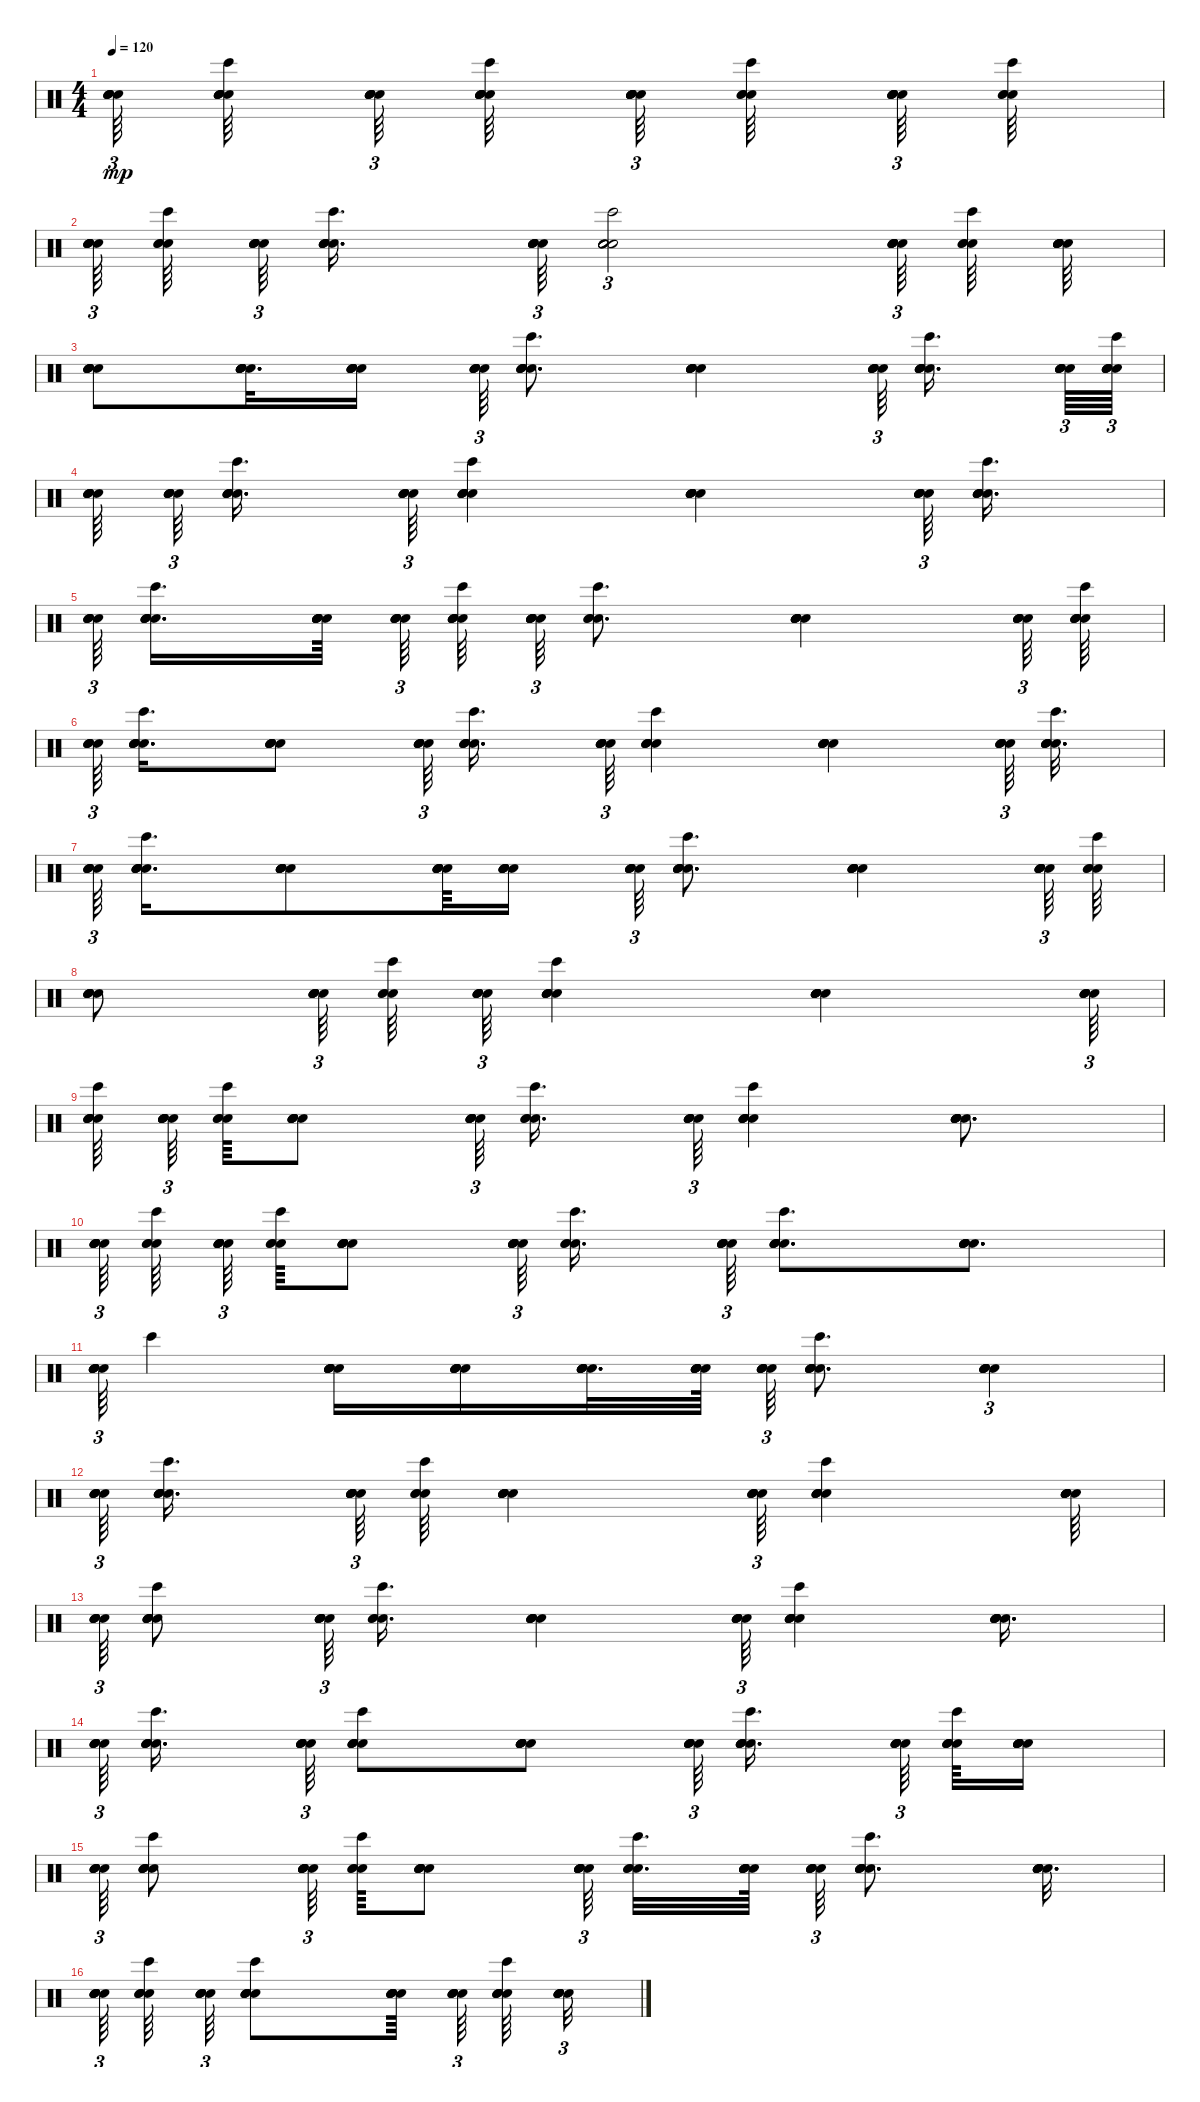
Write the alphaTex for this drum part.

\track "" {instrument percussion}
\staff {score}
\articulation defaults
\ts (4 4)
\tempo 120
\clef neutral
\ks c
("Snare (hit)" "Snare (hit)" "Snare (hit)" "Snare (hit)" "Snare (hit)").64{tu (3 2) dy mp} ("Snare (hit)" "Snare (hit)" "Snare (hit)" "Snare (hit)" "Bongo High (hit)" "Snare (hit)").64 ("Snare (hit)" "Snare (hit)" "Snare (hit)" "Snare (hit)" "Snare (hit)").64{tu (3 2)} ("Snare (hit)" "Snare (hit)" "Snare (hit)" "Snare (hit)" "Bongo High (hit)" "Snare (hit)").64 ("Snare (hit)" "Snare (hit)" "Snare (hit)" "Snare (hit)" "Snare (hit)" "Snare (hit)").64{tu (3 2)} ("Snare (hit)" "Snare (hit)" "Bongo High (hit)" "Snare (hit)").64 ("Snare (hit)" "Snare (hit)" "Snare (hit)" "Snare (hit)" "Snare (hit)" "Snare (hit)").64{tu (3 2)} ("Snare (hit)" "Snare (hit)" "Bongo High (hit)" "Snare (hit)").64 |
("Snare (hit)" "Snare (hit)" "Snare (hit)" "Snare (hit)" "Snare (hit)" "Snare (hit)").64{tu (3 2)} ("Snare (hit)" "Snare (hit)" "Bongo High (hit)" "Snare (hit)").64 ("Snare (hit)" "Snare (hit)" "Snare (hit)" "Snare (hit)" "Snare (hit)").64{tu (3 2)} ("Snare (hit)" "Snare (hit)" "Snare (hit)" "Snare (hit)" "Bongo High (hit)" "Snare (hit)").16{d} ("Snare (hit)" "Snare (hit)" "Snare (hit)" "Snare (hit)" "Snare (hit)").64{tu (3 2)} ("Snare (hit)" "Snare (hit)" "Snare (hit)" "Snare (hit)" "Snare (hit)" "Bongo High (hit)").2{tu (3 2)} ("Snare (hit)" "Snare (hit)" "Snare (hit)" "Snare (hit)" "Snare (hit)" "Snare (hit)").64{tu (3 2)} ("Snare (hit)" "Snare (hit)" "Bongo High (hit)" "Snare (hit)").64 ("Snare (hit)" "Snare (hit)" "Snare (hit)" "Snare (hit)" "Snare (hit)" "Snare (hit)").64 |
("Snare (hit)" "Snare (hit)" "Snare (hit)" "Snare (hit)" "Snare (hit)" "Snare (hit)").8 ("Snare (hit)" "Snare (hit)" "Snare (hit)" "Snare (hit)" "Snare (hit)" "Snare (hit)").32{d} ("Snare (hit)" "Snare (hit)" "Snare (hit)" "Snare (hit)" "Snare (hit)" "Snare (hit)").16 ("Snare (hit)" "Snare (hit)" "Snare (hit)" "Snare (hit)" "Snare (hit)").64{tu (3 2)} ("Snare (hit)" "Snare (hit)" "Snare (hit)" "Snare (hit)" "Snare (hit)" "Bongo High (hit)").8{d} ("Snare (hit)" "Snare (hit)" "Snare (hit)" "Snare (hit)" "Snare (hit)" "Snare (hit)").4 ("Snare (hit)" "Snare (hit)" "Snare (hit)" "Snare (hit)" "Snare (hit)").64{tu (3 2)} ("Snare (hit)" "Snare (hit)" "Snare (hit)" "Snare (hit)" "Bongo High (hit)" "Snare (hit)").16{d} ("Snare (hit)" "Snare (hit)" "Snare (hit)" "Snare (hit)" "Snare (hit)").64{tu (3 2)} ("Snare (hit)" "Snare (hit)" "Snare (hit)" "Snare (hit)" "Bongo High (hit)" "Snare (hit)").64{tu (3 2)} |
("Snare (hit)" "Snare (hit)" "Snare (hit)" "Snare (hit)" "Snare (hit)" "Snare (hit)").64 ("Snare (hit)" "Snare (hit)" "Snare (hit)" "Snare (hit)" "Snare (hit)").64{tu (3 2)} ("Snare (hit)" "Snare (hit)" "Snare (hit)" "Snare (hit)" "Snare (hit)" "Bongo High (hit)").16{d} ("Snare (hit)" "Snare (hit)" "Snare (hit)" "Snare (hit)" "Snare (hit)").64{tu (3 2)} ("Snare (hit)" "Snare (hit)" "Snare (hit)" "Snare (hit)" "Bongo High (hit)" "Snare (hit)").4 ("Snare (hit)" "Snare (hit)" "Snare (hit)" "Snare (hit)" "Snare (hit)" "Snare (hit)").4 ("Snare (hit)" "Snare (hit)" "Snare (hit)" "Snare (hit)" "Snare (hit)").64{tu (3 2)} ("Snare (hit)" "Snare (hit)" "Snare (hit)" "Snare (hit)" "Bongo High (hit)" "Snare (hit)").16{d} |
("Snare (hit)" "Snare (hit)" "Snare (hit)" "Snare (hit)" "Snare (hit)").64{tu (3 2)} ("Snare (hit)" "Snare (hit)" "Snare (hit)" "Snare (hit)" "Bongo High (hit)" "Snare (hit)").16{d} ("Snare (hit)" "Snare (hit)" "Snare (hit)" "Snare (hit)" "Snare (hit)" "Snare (hit)").64 ("Snare (hit)" "Snare (hit)" "Snare (hit)" "Snare (hit)" "Snare (hit)").64{tu (3 2)} ("Snare (hit)" "Snare (hit)" "Snare (hit)" "Snare (hit)" "Bongo High (hit)" "Snare (hit)").64 ("Snare (hit)" "Snare (hit)" "Snare (hit)" "Snare (hit)" "Snare (hit)" "Snare (hit)").64{tu (3 2)} ("Snare (hit)" "Snare (hit)" "Bongo High (hit)" "Snare (hit)").8{d} ("Snare (hit)" "Snare (hit)" "Snare (hit)" "Snare (hit)" "Snare (hit)" "Snare (hit)").4 ("Snare (hit)" "Snare (hit)" "Snare (hit)" "Snare (hit)" "Snare (hit)").64{tu (3 2)} ("Snare (hit)" "Snare (hit)" "Snare (hit)" "Snare (hit)" "Bongo High (hit)" "Snare (hit)").64 |
("Snare (hit)" "Snare (hit)" "Snare (hit)" "Snare (hit)" "Snare (hit)").64{tu (3 2)} ("Snare (hit)" "Snare (hit)" "Snare (hit)" "Snare (hit)" "Snare (hit)" "Bongo High (hit)").16{d} ("Snare (hit)" "Snare (hit)" "Snare (hit)" "Snare (hit)" "Snare (hit)" "Snare (hit)").8 ("Snare (hit)" "Snare (hit)" "Snare (hit)" "Snare (hit)" "Snare (hit)").64{tu (3 2)} ("Snare (hit)" "Snare (hit)" "Snare (hit)" "Bongo High (hit)" "Snare (hit)" "Snare (hit)").16{d} ("Snare (hit)" "Snare (hit)" "Snare (hit)" "Snare (hit)" "Snare (hit)").64{tu (3 2)} ("Snare (hit)" "Snare (hit)" "Snare (hit)" "Bongo High (hit)" "Snare (hit)" "Snare (hit)").4 ("Snare (hit)" "Snare (hit)" "Snare (hit)" "Snare (hit)" "Snare (hit)" "Snare (hit)").4 ("Snare (hit)" "Snare (hit)" "Snare (hit)" "Snare (hit)" "Snare (hit)").64{tu (3 2)} ("Snare (hit)" "Snare (hit)" "Snare (hit)" "Snare (hit)" "Bongo High (hit)" "Snare (hit)").32{d} |
("Snare (hit)" "Snare (hit)" "Snare (hit)" "Snare (hit)" "Snare (hit)").64{tu (3 2)} ("Snare (hit)" "Snare (hit)" "Snare (hit)" "Snare (hit)" "Snare (hit)" "Bongo High (hit)").16{d} ("Snare (hit)" "Snare (hit)" "Snare (hit)" "Snare (hit)" "Snare (hit)" "Snare (hit)").8 ("Snare (hit)" "Snare (hit)" "Snare (hit)" "Snare (hit)" "Snare (hit)" "Snare (hit)").64 ("Snare (hit)" "Snare (hit)" "Snare (hit)" "Snare (hit)" "Snare (hit)" "Snare (hit)").16 ("Snare (hit)" "Snare (hit)" "Snare (hit)" "Snare (hit)" "Snare (hit)").64{tu (3 2)} ("Snare (hit)" "Snare (hit)" "Snare (hit)" "Snare (hit)" "Snare (hit)" "Bongo High (hit)").8{d} ("Snare (hit)" "Snare (hit)" "Snare (hit)" "Snare (hit)" "Snare (hit)" "Snare (hit)").4 ("Snare (hit)" "Snare (hit)" "Snare (hit)" "Snare (hit)" "Snare (hit)" "Snare (hit)").64{tu (3 2)} ("Snare (hit)" "Snare (hit)" "Bongo High (hit)" "Snare (hit)").64 |
("Snare (hit)" "Snare (hit)" "Snare (hit)" "Snare (hit)" "Snare (hit)" "Snare (hit)").8 ("Snare (hit)" "Snare (hit)" "Snare (hit)" "Snare (hit)" "Snare (hit)" "Snare (hit)").64{tu (3 2)} ("Snare (hit)" "Snare (hit)" "Bongo High (hit)" "Snare (hit)").64 ("Snare (hit)" "Snare (hit)" "Snare (hit)" "Snare (hit)" "Snare (hit)").64{tu (3 2)} ("Snare (hit)" "Snare (hit)" "Snare (hit)" "Snare (hit)" "Bongo High (hit)" "Snare (hit)").4 ("Snare (hit)" "Snare (hit)" "Snare (hit)" "Snare (hit)" "Snare (hit)" "Snare (hit)").4 ("Snare (hit)" "Snare (hit)" "Snare (hit)" "Snare (hit)" "Snare (hit)").64{tu (3 2)} |
("Snare (hit)" "Snare (hit)" "Snare (hit)" "Snare (hit)" "Bongo High (hit)" "Snare (hit)").64 ("Snare (hit)" "Snare (hit)" "Snare (hit)" "Snare (hit)" "Snare (hit)" "Snare (hit)").64{tu (3 2)} ("Snare (hit)" "Snare (hit)" "Bongo High (hit)" "Snare (hit)").64 ("Snare (hit)" "Snare (hit)" "Snare (hit)" "Snare (hit)" "Snare (hit)" "Snare (hit)").8 ("Snare (hit)" "Snare (hit)" "Snare (hit)" "Snare (hit)" "Snare (hit)" "Snare (hit)").64{tu (3 2)} ("Snare (hit)" "Bongo High (hit)" "Snare (hit)" "Snare (hit)").16{d} ("Snare (hit)" "Snare (hit)" "Snare (hit)" "Snare (hit)" "Snare (hit)").64{tu (3 2)} ("Snare (hit)" "Snare (hit)" "Snare (hit)" "Snare (hit)" "Bongo High (hit)" "Snare (hit)").4 ("Snare (hit)" "Snare (hit)" "Snare (hit)" "Snare (hit)" "Snare (hit)" "Snare (hit)").8{d} |
("Snare (hit)" "Snare (hit)" "Snare (hit)" "Snare (hit)" "Snare (hit)" "Snare (hit)").64{tu (3 2)} ("Snare (hit)" "Snare (hit)" "Bongo High (hit)" "Snare (hit)").64 ("Snare (hit)" "Snare (hit)" "Snare (hit)" "Snare (hit)" "Snare (hit)" "Snare (hit)").64{tu (3 2)} ("Snare (hit)" "Snare (hit)" "Bongo High (hit)" "Snare (hit)").64 ("Snare (hit)" "Snare (hit)" "Snare (hit)" "Snare (hit)" "Snare (hit)" "Snare (hit)").8 ("Snare (hit)" "Snare (hit)" "Snare (hit)" "Snare (hit)" "Snare (hit)" "Snare (hit)").64{tu (3 2)} ("Snare (hit)" "Snare (hit)" "Snare (hit)" "Bongo High (hit)").16{d} ("Snare (hit)" "Snare (hit)" "Snare (hit)" "Snare (hit)" "Snare (hit)").64{tu (3 2)} ("Snare (hit)" "Snare (hit)" "Snare (hit)" "Snare (hit)" "Snare (hit)" "Bongo High (hit)").8{d} ("Snare (hit)" "Snare (hit)" "Snare (hit)" "Snare (hit)" "Snare (hit)" "Snare (hit)").8{d} |
("Snare (hit)" "Snare (hit)" "Snare (hit)" "Snare (hit)" "Snare (hit)" "Snare (hit)").64{tu (3 2)} "Bongo High (hit)".4 ("Snare (hit)" "Snare (hit)" "Snare (hit)" "Snare (hit)" "Snare (hit)" "Snare (hit)").16 ("Snare (hit)" "Snare (hit)" "Snare (hit)" "Snare (hit)" "Snare (hit)" "Snare (hit)").16 ("Snare (hit)" "Snare (hit)" "Snare (hit)" "Snare (hit)" "Snare (hit)" "Snare (hit)").32{d} ("Snare (hit)" "Snare (hit)" "Snare (hit)" "Snare (hit)" "Snare (hit)" "Snare (hit)").64 ("Snare (hit)" "Snare (hit)" "Snare (hit)" "Snare (hit)" "Snare (hit)").64{tu (3 2)} ("Snare (hit)" "Snare (hit)" "Snare (hit)" "Snare (hit)" "Snare (hit)" "Bongo High (hit)").8{d} ("Snare (hit)" "Snare (hit)" "Snare (hit)" "Snare (hit)" "Snare (hit)" "Snare (hit)").4{tu (3 2)} |
("Snare (hit)" "Snare (hit)" "Snare (hit)" "Snare (hit)" "Snare (hit)").64{tu (3 2)} ("Snare (hit)" "Snare (hit)" "Snare (hit)" "Snare (hit)" "Bongo High (hit)" "Snare (hit)").16{d} ("Snare (hit)" "Snare (hit)" "Snare (hit)" "Snare (hit)" "Snare (hit)" "Snare (hit)").64{tu (3 2)} ("Snare (hit)" "Snare (hit)" "Bongo High (hit)" "Snare (hit)").64 ("Snare (hit)" "Snare (hit)" "Snare (hit)" "Snare (hit)" "Snare (hit)" "Snare (hit)").4 ("Snare (hit)" "Snare (hit)" "Snare (hit)" "Snare (hit)" "Snare (hit)").64{tu (3 2)} ("Snare (hit)" "Snare (hit)" "Snare (hit)" "Snare (hit)" "Bongo High (hit)" "Snare (hit)").4 ("Snare (hit)" "Snare (hit)" "Snare (hit)" "Snare (hit)" "Snare (hit)" "Snare (hit)").64 |
("Snare (hit)" "Snare (hit)" "Snare (hit)" "Snare (hit)" "Snare (hit)").64{tu (3 2)} ("Snare (hit)" "Snare (hit)" "Snare (hit)" "Bongo High (hit)" "Snare (hit)" "Snare (hit)").8 ("Snare (hit)" "Snare (hit)" "Snare (hit)" "Snare (hit)" "Snare (hit)" "Snare (hit)").64{tu (3 2)} ("Snare (hit)" "Bongo High (hit)" "Snare (hit)" "Snare (hit)").16{d} ("Snare (hit)" "Snare (hit)" "Snare (hit)" "Snare (hit)" "Snare (hit)" "Snare (hit)").4 ("Snare (hit)" "Snare (hit)" "Snare (hit)" "Snare (hit)" "Snare (hit)").64{tu (3 2)} ("Snare (hit)" "Snare (hit)" "Snare (hit)" "Snare (hit)" "Snare (hit)" "Bongo High (hit)").4 ("Snare (hit)" "Snare (hit)" "Snare (hit)" "Snare (hit)" "Snare (hit)" "Snare (hit)").16{d} |
("Snare (hit)" "Snare (hit)" "Snare (hit)" "Snare (hit)" "Snare (hit)").64{tu (3 2)} ("Snare (hit)" "Snare (hit)" "Snare (hit)" "Snare (hit)" "Bongo High (hit)" "Snare (hit)").16{d} ("Snare (hit)" "Snare (hit)" "Snare (hit)" "Snare (hit)" "Snare (hit)").64{tu (3 2)} ("Snare (hit)" "Snare (hit)" "Snare (hit)" "Snare (hit)" "Bongo High (hit)" "Snare (hit)").8 ("Snare (hit)" "Snare (hit)" "Snare (hit)" "Snare (hit)" "Snare (hit)" "Snare (hit)").8 ("Snare (hit)" "Snare (hit)" "Snare (hit)" "Snare (hit)" "Snare (hit)").64{tu (3 2)} ("Snare (hit)" "Snare (hit)" "Snare (hit)" "Snare (hit)" "Snare (hit)" "Bongo High (hit)").16{d} ("Snare (hit)" "Snare (hit)" "Snare (hit)" "Snare (hit)" "Snare (hit)").64{tu (3 2)} ("Snare (hit)" "Snare (hit)" "Snare (hit)" "Snare (hit)" "Bongo High (hit)" "Snare (hit)").64 ("Snare (hit)" "Snare (hit)" "Snare (hit)" "Snare (hit)" "Snare (hit)" "Snare (hit)").16 |
("Snare (hit)" "Snare (hit)" "Snare (hit)" "Snare (hit)" "Snare (hit)").64{tu (3 2)} ("Snare (hit)" "Snare (hit)" "Snare (hit)" "Snare (hit)" "Bongo High (hit)" "Snare (hit)").8 ("Snare (hit)" "Snare (hit)" "Snare (hit)" "Snare (hit)" "Snare (hit)" "Snare (hit)").64{tu (3 2)} ("Snare (hit)" "Snare (hit)" "Bongo High (hit)" "Snare (hit)").64 ("Snare (hit)" "Snare (hit)" "Snare (hit)" "Snare (hit)" "Snare (hit)" "Snare (hit)").8 ("Snare (hit)" "Snare (hit)" "Snare (hit)" "Snare (hit)" "Snare (hit)" "Snare (hit)").64{tu (3 2)} ("Snare (hit)" "Snare (hit)" "Snare (hit)" "Bongo High (hit)").32{d} ("Snare (hit)" "Snare (hit)" "Snare (hit)" "Snare (hit)" "Snare (hit)" "Snare (hit)").64 ("Snare (hit)" "Snare (hit)" "Snare (hit)" "Snare (hit)" "Snare (hit)").64{tu (3 2)} ("Snare (hit)" "Snare (hit)" "Snare (hit)" "Snare (hit)" "Snare (hit)" "Bongo High (hit)").8{d} ("Snare (hit)" "Snare (hit)" "Snare (hit)" "Snare (hit)" "Snare (hit)" "Snare (hit)").32{d} |
("Snare (hit)" "Snare (hit)" "Snare (hit)" "Snare (hit)" "Snare (hit)" "Snare (hit)").64{tu (3 2)} ("Snare (hit)" "Snare (hit)" "Snare (hit)" "Bongo High (hit)" "Snare (hit)").64 ("Snare (hit)" "Snare (hit)" "Snare (hit)" "Snare (hit)" "Snare (hit)").64{tu (3 2)} ("Snare (hit)" "Snare (hit)" "Snare (hit)" "Snare (hit)" "Bongo High (hit)" "Snare (hit)").8 ("Snare (hit)" "Snare (hit)" "Snare (hit)" "Snare (hit)" "Snare (hit)" "Snare (hit)").64 ("Snare (hit)" "Snare (hit)" "Snare (hit)" "Snare (hit)" "Snare (hit)").64{tu (3 2)} ("Snare (hit)" "Snare (hit)" "Snare (hit)" "Bongo High (hit)" "Snare (hit)" "Snare (hit)").64 ("Snare (hit)" "Snare (hit)" "Snare (hit)" "Snare (hit)" "Snare (hit)" "Snare (hit)").32{tu (3 2)}
